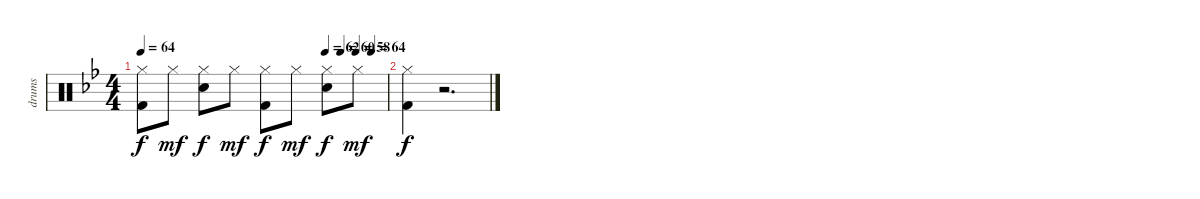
\track ("drums" "drums") {instrument percussion}
\staff {score}
\articulation defaults
\ts (4 4)
\tempo 64
\tempo (62 0.75)
\tempo (60 0.8125)
\tempo (58 0.875)
\tempo (64 0.9375)
\clef neutral
\ks gminor
("Hi-Hat (closed)" "Kick (hit) 2").8{dy f} "Hi-Hat (closed)".8{dy mf} ("Hi-Hat (closed)" "Snare (hit) 2").8{dy f} "Hi-Hat (closed)".8{dy mf} ("Hi-Hat (closed)" "Kick (hit) 2").8{dy f} "Hi-Hat (closed)".8{dy mf} ("Hi-Hat (closed)" "Snare (hit) 2").8{dy f} "Hi-Hat (closed)".8{dy mf} |
("Hi-Hat (closed)" "Kick (hit) 2").4{dy f} r.2{d}
